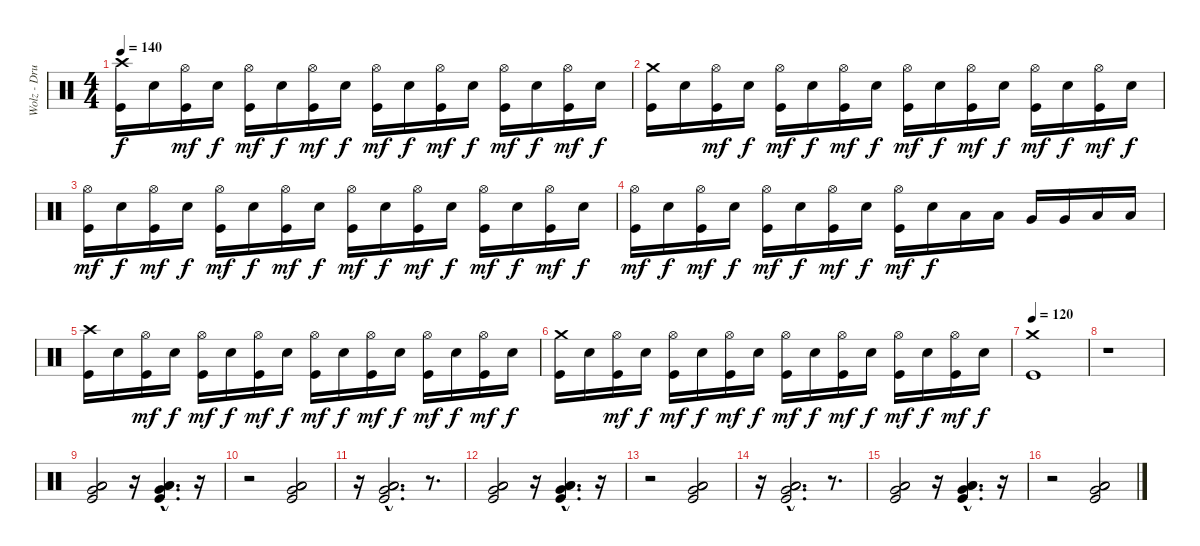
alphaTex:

\track ("Wolz - Drums" "Wolz - Dru") {instrument percussion}
\staff {score}
\articulation defaults
\ts (4 4)
\tempo 140
\clef neutral
\ks c
("Crash high (hit)" "Kick (hit)").16{dy f} "Electric Snare (hit)".16 ("Hi-Hat (open)" "Kick (hit)").16{dy mf} "Electric Snare (hit)".16{dy f} ("Hi-Hat (open)" "Kick (hit)").16{dy mf} "Electric Snare (hit)".16{dy f} ("Hi-Hat (open)" "Kick (hit)").16{dy mf} "Electric Snare (hit)".16{dy f} ("Hi-Hat (open)" "Kick (hit)").16{dy mf} "Electric Snare (hit)".16{dy f} ("Hi-Hat (open)" "Kick (hit)").16{dy mf} "Electric Snare (hit)".16{dy f} ("Hi-Hat (open)" "Kick (hit)").16{dy mf} "Electric Snare (hit)".16{dy f} ("Hi-Hat (open)" "Kick (hit)").16{dy mf} "Electric Snare (hit)".16{dy f} |
("Crash medium (hit)" "Kick (hit)").16 "Electric Snare (hit)".16 ("Hi-Hat (open)" "Kick (hit)").16{dy mf} "Electric Snare (hit)".16{dy f} ("Hi-Hat (open)" "Kick (hit)").16{dy mf} "Electric Snare (hit)".16{dy f} ("Hi-Hat (open)" "Kick (hit)").16{dy mf} "Electric Snare (hit)".16{dy f} ("Hi-Hat (open)" "Kick (hit)").16{dy mf} "Electric Snare (hit)".16{dy f} ("Hi-Hat (open)" "Kick (hit)").16{dy mf} "Electric Snare (hit)".16{dy f} ("Hi-Hat (open)" "Kick (hit)").16{dy mf} "Electric Snare (hit)".16{dy f} ("Hi-Hat (open)" "Kick (hit)").16{dy mf} "Electric Snare (hit)".16{dy f} |
("Hi-Hat (open)" "Kick (hit)").16{dy mf} "Electric Snare (hit)".16{dy f} ("Hi-Hat (open)" "Kick (hit)").16{dy mf} "Electric Snare (hit)".16{dy f} ("Hi-Hat (open)" "Kick (hit)").16{dy mf} "Electric Snare (hit)".16{dy f} ("Hi-Hat (open)" "Kick (hit)").16{dy mf} "Electric Snare (hit)".16{dy f} ("Hi-Hat (open)" "Kick (hit)").16{dy mf} "Electric Snare (hit)".16{dy f} ("Hi-Hat (open)" "Kick (hit)").16{dy mf} "Electric Snare (hit)".16{dy f} ("Hi-Hat (open)" "Kick (hit)").16{dy mf} "Electric Snare (hit)".16{dy f} ("Hi-Hat (open)" "Kick (hit)").16{dy mf} "Electric Snare (hit)".16{dy f} |
("Hi-Hat (open)" "Kick (hit)").16{dy mf} "Electric Snare (hit)".16{dy f} ("Hi-Hat (open)" "Kick (hit)").16{dy mf} "Electric Snare (hit)".16{dy f} ("Hi-Hat (open)" "Kick (hit)").16{dy mf} "Electric Snare (hit)".16{dy f} ("Hi-Hat (open)" "Kick (hit)").16{dy mf} "Electric Snare (hit)".16{dy f} ("Hi-Hat (open)" "Kick (hit)").16{dy mf} "Electric Snare (hit)".16{dy f} "Low Tom (hit)".16 "Low Tom (hit)".16 "Very Low Tom (hit)".16 "Very Low Tom (hit)".16 "Low Floor Tom (hit)".16 "Low Floor Tom (hit)".16 |
("Crash high (hit)" "Kick (hit)").16 "Electric Snare (hit)".16 ("Hi-Hat (open)" "Kick (hit)").16{dy mf} "Electric Snare (hit)".16{dy f} ("Hi-Hat (open)" "Kick (hit)").16{dy mf} "Electric Snare (hit)".16{dy f} ("Hi-Hat (open)" "Kick (hit)").16{dy mf} "Electric Snare (hit)".16{dy f} ("Hi-Hat (open)" "Kick (hit)").16{dy mf} "Electric Snare (hit)".16{dy f} ("Hi-Hat (open)" "Kick (hit)").16{dy mf} "Electric Snare (hit)".16{dy f} ("Hi-Hat (open)" "Kick (hit)").16{dy mf} "Electric Snare (hit)".16{dy f} ("Hi-Hat (open)" "Kick (hit)").16{dy mf} "Electric Snare (hit)".16{dy f} |
("Crash medium (hit)" "Kick (hit)").16 "Electric Snare (hit)".16 ("Hi-Hat (open)" "Kick (hit)").16{dy mf} "Electric Snare (hit)".16{dy f} ("Hi-Hat (open)" "Kick (hit)").16{dy mf} "Electric Snare (hit)".16{dy f} ("Hi-Hat (open)" "Kick (hit)").16{dy mf} "Electric Snare (hit)".16{dy f} ("Hi-Hat (open)" "Kick (hit)").16{dy mf} "Electric Snare (hit)".16{dy f} ("Hi-Hat (open)" "Kick (hit)").16{dy mf} "Electric Snare (hit)".16{dy f} ("Hi-Hat (open)" "Kick (hit)").16{dy mf} "Electric Snare (hit)".16{dy f} ("Hi-Hat (open)" "Kick (hit)").16{dy mf} "Electric Snare (hit)".16{dy f} |
\tempo 120
("Crash medium (hit)" "Kick (hit)").1 |
r.1 |
("Low Tom (hit)" "Very Low Tom (hit)" "Low Floor Tom (hit)" "Kick (hit)").2{bu 60} r.16 ("Low Tom (hit)"{hac} "Very Low Tom (hit)"{hac} "Low Floor Tom (hit)"{hac} "Kick (hit)"{hac}).4{d bu 60} r.16 |
r.2 ("Low Tom (hit)" "Very Low Tom (hit)" "Low Floor Tom (hit)" "Kick (hit)").2{bu 60} |
r.16 ("Low Tom (hit)"{hac} "Very Low Tom (hit)"{hac} "Low Floor Tom (hit)"{hac} "Kick (hit)"{hac}).2{d bu 60} r.8{d} |
("Low Tom (hit)" "Very Low Tom (hit)" "Low Floor Tom (hit)" "Kick (hit)").2{bu 60} r.16 ("Low Tom (hit)"{hac} "Very Low Tom (hit)"{hac} "Low Floor Tom (hit)"{hac} "Kick (hit)"{hac}).4{d bu 60} r.16 |
r.2 ("Low Tom (hit)" "Very Low Tom (hit)" "Low Floor Tom (hit)" "Kick (hit)").2{bu 60} |
r.16 ("Low Tom (hit)"{hac} "Very Low Tom (hit)"{hac} "Low Floor Tom (hit)"{hac} "Kick (hit)"{hac}).2{d bu 60} r.8{d} |
("Low Tom (hit)" "Very Low Tom (hit)" "Low Floor Tom (hit)" "Kick (hit)").2{bu 60} r.16 ("Low Tom (hit)"{hac} "Very Low Tom (hit)"{hac} "Low Floor Tom (hit)"{hac} "Kick (hit)"{hac}).4{d bu 60} r.16 |
r.2 ("Low Tom (hit)" "Very Low Tom (hit)" "Low Floor Tom (hit)" "Kick (hit)").2{bu 60}
